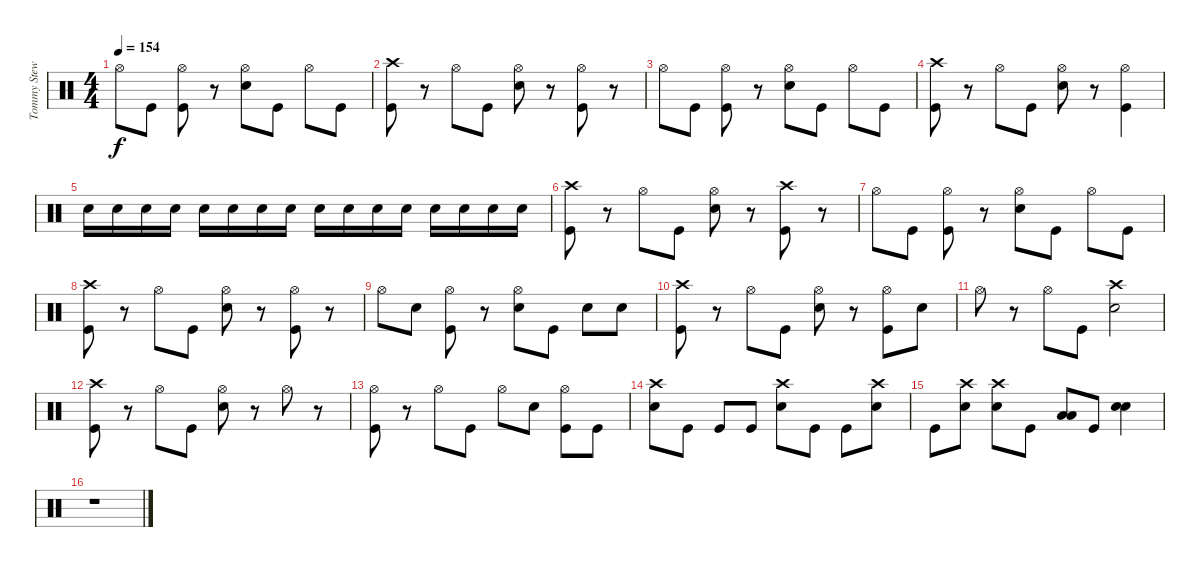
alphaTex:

\track ("Tommy Stewart" "Tommy Stew") {instrument percussion}
\staff {score}
\articulation defaults
\ts (4 4)
\tempo 154
\clef neutral
\ks c "Hi-Hat (open)".8{dy f} "Kick (hit)".8
("Hi-Hat (open)" "Kick (hit)").8 r.8 ("Hi-Hat (open)" "Snare (hit) 2").8 "Kick (hit)".8 "Hi-Hat (open)".8 "Kick (hit)".8 |
("Crash high (hit)" "Kick (hit)").8 r.8 "Hi-Hat (open)".8 "Kick (hit)".8 ("Hi-Hat (open)" "Snare (hit) 2").8 r.8 ("Hi-Hat (open)" "Kick (hit)").8 r.8 |
"Hi-Hat (open)".8 "Kick (hit)".8 ("Hi-Hat (open)" "Kick (hit)").8 r.8 ("Hi-Hat (open)" "Snare (hit) 2").8 "Kick (hit)".8 "Hi-Hat (open)".8 "Kick (hit)".8 |
("Crash high (hit)" "Kick (hit)").8 r.8 "Hi-Hat (open)".8 "Kick (hit)".8 ("Hi-Hat (open)" "Snare (hit) 2").8 r.8 ("Hi-Hat (open)" "Kick (hit)").4 |
"Snare (hit) 2".16 "Snare (hit) 2".16 "Snare (hit) 2".16 "Snare (hit) 2".16 "Snare (hit) 2".16 "Snare (hit) 2".16 "Snare (hit) 2".16 "Snare (hit) 2".16 "Snare (hit) 2".16 "Snare (hit) 2".16 "Snare (hit) 2".16 "Snare (hit) 2".16 "Snare (hit) 2".16 "Snare (hit) 2".16 "Snare (hit) 2".16 "Snare (hit) 2".16 |
("Crash high (hit)" "Kick (hit)").8 r.8 "Hi-Hat (open)".8 "Kick (hit)".8 ("Hi-Hat (open)" "Snare (hit) 2").8 r.8 ("Crash high (hit)" "Kick (hit)").8 r.8 |
"Hi-Hat (open)".8 "Kick (hit)".8 ("Hi-Hat (open)" "Kick (hit)").8 r.8 ("Hi-Hat (open)" "Snare (hit) 2").8 "Kick (hit)".8 "Hi-Hat (open)".8 "Kick (hit)".8 |
("Crash high (hit)" "Kick (hit)").8 r.8 "Hi-Hat (open)".8 "Kick (hit)".8 ("Hi-Hat (open)" "Snare (hit) 2").8 r.8 ("Hi-Hat (open)" "Kick (hit)").8 r.8 |
"Hi-Hat (open)".8 "Snare (hit) 2".8 ("Hi-Hat (open)" "Kick (hit)").8 r.8 ("Hi-Hat (open)" "Snare (hit) 2").8 "Kick (hit)".8 "Snare (hit) 2".8 "Snare (hit) 2".8 |
("Crash high (hit)" "Kick (hit)").8 r.8 "Hi-Hat (open)".8 "Kick (hit)".8 ("Hi-Hat (open)" "Snare (hit) 2").8 r.8 ("Hi-Hat (open)" "Kick (hit)").8 "Snare (hit) 2".8 |
"Hi-Hat (open)".8 r.8 "Hi-Hat (open)".8 "Kick (hit)".8 ("Crash high (hit)" "Snare (hit) 2").2 |
("Crash high (hit)" "Kick (hit)").8 r.8 "Hi-Hat (open)".8 "Kick (hit)".8 ("Hi-Hat (open)" "Snare (hit) 2").8 r.8 "Hi-Hat (open)".8 r.8 |
("Hi-Hat (open)" "Kick (hit)").8 r.8 "Hi-Hat (open)".8 "Kick (hit)".8 "Hi-Hat (open)".8 "Snare (hit) 2".8 ("Hi-Hat (open)" "Kick (hit)").8 "Kick (hit)".8 |
("Crash high (hit)" "Snare (hit) 2").8 "Kick (hit)".8 "Kick (hit)".8 "Kick (hit)".8 ("Crash high (hit)" "Snare (hit) 2").8 "Kick (hit)".8 "Kick (hit)".8 ("Crash high (hit)" "Snare (hit) 2").8 |
"Kick (hit)".8 ("Crash high (hit)" "Snare (hit) 2").8 ("Crash high (hit)" "Snare (hit) 2").8 "Kick (hit)".8 ("Low Tom (hit)" "Low Tom (hit)").8 "Kick (hit)".8 ("Snare (hit) 2" "Snare (hit) 2").4 |
r.1
